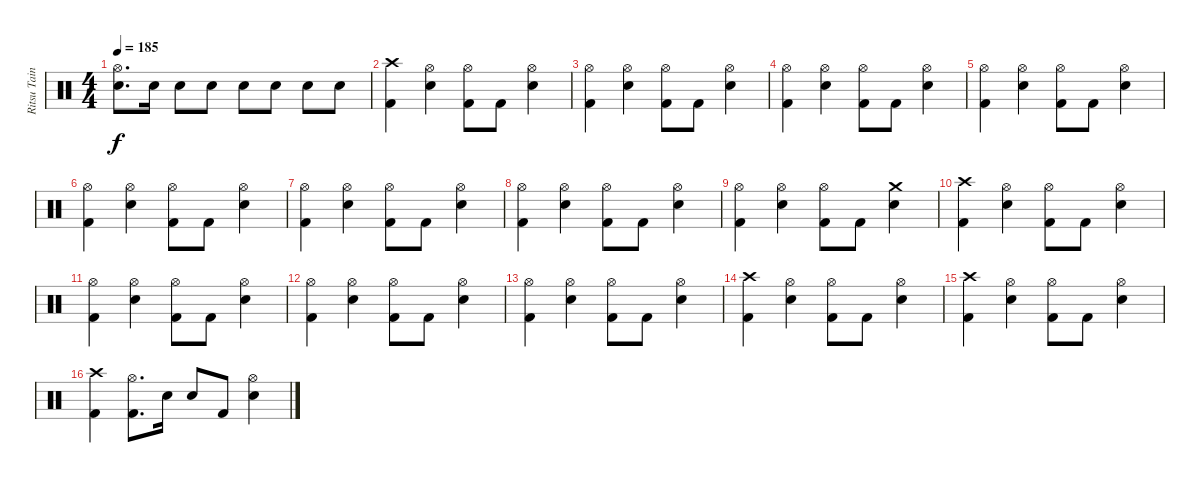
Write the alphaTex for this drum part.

\track ("Ritsu Tainaka" "Ritsu Tain") {instrument percussion}
\staff {score}
\articulation defaults
\ts (4 4)
\tempo 185
\clef neutral
\ks c
("Hi-Hat (open)" "Snare (hit) 2").8{d dy f} "Snare (hit) 2".16 "Snare (hit) 2".8 "Snare (hit) 2".8 "Snare (hit) 2".8 "Snare (hit) 2".8 "Snare (hit) 2".8 "Snare (hit) 2".8 |
("Crash high (hit)" "Kick (hit) 2").4 ("Hi-Hat (open)" "Snare (hit) 2").4 ("Hi-Hat (open)" "Kick (hit) 2").8 "Kick (hit) 2".8 ("Hi-Hat (open)" "Snare (hit) 2").4 |
("Hi-Hat (open)" "Kick (hit) 2").4 ("Hi-Hat (open)" "Snare (hit) 2").4 ("Hi-Hat (open)" "Kick (hit) 2").8 "Kick (hit) 2".8 ("Hi-Hat (open)" "Snare (hit) 2").4 |
("Hi-Hat (open)" "Kick (hit) 2").4 ("Hi-Hat (open)" "Snare (hit) 2").4 ("Hi-Hat (open)" "Kick (hit) 2").8 "Kick (hit) 2".8 ("Hi-Hat (open)" "Snare (hit) 2").4 |
("Hi-Hat (open)" "Kick (hit) 2").4 ("Hi-Hat (open)" "Snare (hit) 2").4 ("Hi-Hat (open)" "Kick (hit) 2").8 "Kick (hit) 2".8 ("Hi-Hat (open)" "Snare (hit) 2").4 |
("Hi-Hat (open)" "Kick (hit) 2").4 ("Hi-Hat (open)" "Snare (hit) 2").4 ("Hi-Hat (open)" "Kick (hit) 2").8 "Kick (hit) 2".8 ("Hi-Hat (open)" "Snare (hit) 2").4 |
("Hi-Hat (open)" "Kick (hit) 2").4 ("Hi-Hat (open)" "Snare (hit) 2").4 ("Hi-Hat (open)" "Kick (hit) 2").8 "Kick (hit) 2".8 ("Hi-Hat (open)" "Snare (hit) 2").4 |
("Hi-Hat (open)" "Kick (hit) 2").4 ("Hi-Hat (open)" "Snare (hit) 2").4 ("Hi-Hat (open)" "Kick (hit) 2").8 "Kick (hit) 2".8 ("Hi-Hat (open)" "Snare (hit) 2").4 |
("Hi-Hat (open)" "Kick (hit) 2").4 ("Hi-Hat (open)" "Snare (hit) 2").4 ("Hi-Hat (open)" "Kick (hit) 2").8 "Kick (hit) 2".8 ("Crash medium (hit)" "Snare (hit) 2").4 |
("Crash high (hit)" "Kick (hit) 2").4 ("Hi-Hat (open)" "Snare (hit) 2").4 ("Hi-Hat (open)" "Kick (hit) 2").8 "Kick (hit) 2".8 ("Hi-Hat (open)" "Snare (hit) 2").4 |
("Hi-Hat (open)" "Kick (hit) 2").4 ("Hi-Hat (open)" "Snare (hit) 2").4 ("Hi-Hat (open)" "Kick (hit) 2").8 "Kick (hit) 2".8 ("Hi-Hat (open)" "Snare (hit) 2").4 |
("Hi-Hat (open)" "Kick (hit) 2").4 ("Hi-Hat (open)" "Snare (hit) 2").4 ("Hi-Hat (open)" "Kick (hit) 2").8 "Kick (hit) 2".8 ("Hi-Hat (open)" "Snare (hit) 2").4 |
("Hi-Hat (open)" "Kick (hit) 2").4 ("Hi-Hat (open)" "Snare (hit) 2").4 ("Hi-Hat (open)" "Kick (hit) 2").8 "Kick (hit) 2".8 ("Hi-Hat (open)" "Snare (hit) 2").4 |
("Crash high (hit)" "Kick (hit) 2").4 ("Hi-Hat (open)" "Snare (hit) 2").4 ("Hi-Hat (open)" "Kick (hit) 2").8 "Kick (hit) 2".8 ("Hi-Hat (open)" "Snare (hit) 2").4 |
("Crash high (hit)" "Kick (hit) 2").4 ("Hi-Hat (open)" "Snare (hit) 2").4 ("Hi-Hat (open)" "Kick (hit) 2").8 "Kick (hit) 2".8 ("Hi-Hat (open)" "Snare (hit) 2").4 |
("Crash high (hit)" "Kick (hit) 2").4 ("Hi-Hat (open)" "Kick (hit) 2").8{d} "Snare (hit) 2".16 "Snare (hit) 2".8 "Kick (hit) 2".8 ("Hi-Hat (open)" "Snare (hit) 2").4
